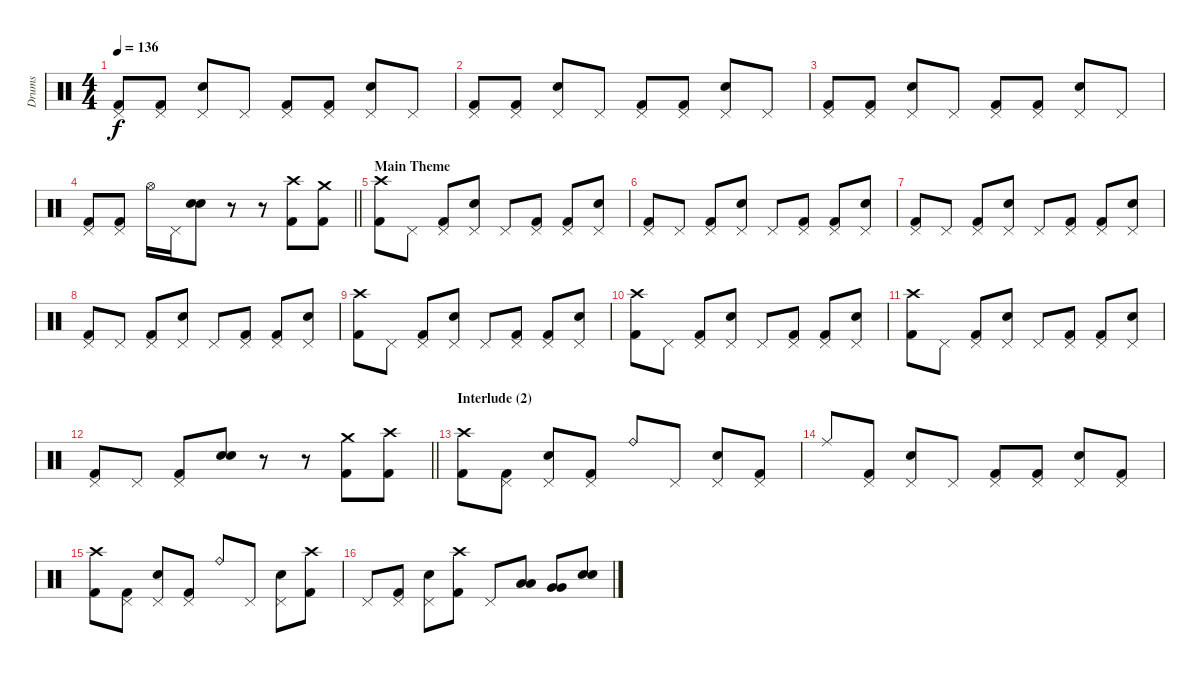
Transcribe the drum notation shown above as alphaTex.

\track ("Drums" "Drums") {instrument percussion}
\staff {score}
\articulation defaults
\ts (4 4)
\tempo 136
\clef neutral
\ks c
("Pedal Hi-Hat (hit)" "Kick (hit) 2").8{dy f} ("Pedal Hi-Hat (hit)" "Kick (hit) 2").8 ("Pedal Hi-Hat (hit)" "Electric Snare (hit)").8 "Pedal Hi-Hat (hit)".8 ("Pedal Hi-Hat (hit)" "Kick (hit) 2").8 ("Pedal Hi-Hat (hit)" "Kick (hit) 2").8 ("Pedal Hi-Hat (hit)" "Electric Snare (hit)").8 "Pedal Hi-Hat (hit)".8 |
("Pedal Hi-Hat (hit)" "Kick (hit) 2").8 ("Pedal Hi-Hat (hit)" "Kick (hit) 2").8 ("Pedal Hi-Hat (hit)" "Electric Snare (hit)").8 "Pedal Hi-Hat (hit)".8 ("Pedal Hi-Hat (hit)" "Kick (hit) 2").8 ("Pedal Hi-Hat (hit)" "Kick (hit) 2").8 ("Pedal Hi-Hat (hit)" "Electric Snare (hit)").8 "Pedal Hi-Hat (hit)".8 |
("Pedal Hi-Hat (hit)" "Kick (hit) 2").8 ("Pedal Hi-Hat (hit)" "Kick (hit) 2").8 ("Pedal Hi-Hat (hit)" "Electric Snare (hit)").8 "Pedal Hi-Hat (hit)".8 ("Pedal Hi-Hat (hit)" "Kick (hit) 2").8 ("Pedal Hi-Hat (hit)" "Kick (hit) 2").8 ("Pedal Hi-Hat (hit)" "Electric Snare (hit)").8 "Pedal Hi-Hat (hit)".8 |
\barLineRight lightlight
("Pedal Hi-Hat (hit)" "Kick (hit) 2").8 ("Pedal Hi-Hat (hit)" "Kick (hit) 2").8 "Hi-Hat (open)".16 "Pedal Hi-Hat (hit)".16 ("Electric Snare (hit)" "Electric Snare (hit)").8 r.8 r.8 ("Crash high (hit)" "Kick (hit) 2").8 ("Crash medium (hit)" "Kick (hit) 2").8 |
\section ("" "Main Theme")
("Crash high (hit)" "Kick (hit) 2").8 "Pedal Hi-Hat (hit)".8 ("Pedal Hi-Hat (hit)" "Kick (hit) 2").8 ("Pedal Hi-Hat (hit)" "Electric Snare (hit)").8 "Pedal Hi-Hat (hit)".8 ("Pedal Hi-Hat (hit)" "Kick (hit) 2").8 ("Pedal Hi-Hat (hit)" "Kick (hit) 2").8 ("Pedal Hi-Hat (hit)" "Electric Snare (hit)").8 |
("Pedal Hi-Hat (hit)" "Kick (hit) 2").8 "Pedal Hi-Hat (hit)".8 ("Pedal Hi-Hat (hit)" "Kick (hit) 2").8 ("Pedal Hi-Hat (hit)" "Electric Snare (hit)").8 "Pedal Hi-Hat (hit)".8 ("Pedal Hi-Hat (hit)" "Kick (hit) 2").8 ("Pedal Hi-Hat (hit)" "Kick (hit) 2").8 ("Pedal Hi-Hat (hit)" "Electric Snare (hit)").8 |
("Pedal Hi-Hat (hit)" "Kick (hit) 2").8 "Pedal Hi-Hat (hit)".8 ("Pedal Hi-Hat (hit)" "Kick (hit) 2").8 ("Pedal Hi-Hat (hit)" "Electric Snare (hit)").8 "Pedal Hi-Hat (hit)".8 ("Pedal Hi-Hat (hit)" "Kick (hit) 2").8 ("Pedal Hi-Hat (hit)" "Kick (hit) 2").8 ("Pedal Hi-Hat (hit)" "Electric Snare (hit)").8 |
("Pedal Hi-Hat (hit)" "Kick (hit) 2").8 "Pedal Hi-Hat (hit)".8 ("Pedal Hi-Hat (hit)" "Kick (hit) 2").8 ("Pedal Hi-Hat (hit)" "Electric Snare (hit)").8 "Pedal Hi-Hat (hit)".8 ("Pedal Hi-Hat (hit)" "Kick (hit) 2").8 ("Pedal Hi-Hat (hit)" "Kick (hit) 2").8 ("Pedal Hi-Hat (hit)" "Electric Snare (hit)").8 |
("Crash high (hit)" "Kick (hit) 2").8 "Pedal Hi-Hat (hit)".8 ("Pedal Hi-Hat (hit)" "Kick (hit) 2").8 ("Pedal Hi-Hat (hit)" "Electric Snare (hit)").8 "Pedal Hi-Hat (hit)".8 ("Pedal Hi-Hat (hit)" "Kick (hit) 2").8 ("Pedal Hi-Hat (hit)" "Kick (hit) 2").8 ("Pedal Hi-Hat (hit)" "Electric Snare (hit)").8 |
("Crash high (hit)" "Kick (hit) 2").8 "Pedal Hi-Hat (hit)".8 ("Pedal Hi-Hat (hit)" "Kick (hit) 2").8 ("Pedal Hi-Hat (hit)" "Electric Snare (hit)").8 "Pedal Hi-Hat (hit)".8 ("Pedal Hi-Hat (hit)" "Kick (hit) 2").8 ("Pedal Hi-Hat (hit)" "Kick (hit) 2").8 ("Pedal Hi-Hat (hit)" "Electric Snare (hit)").8 |
("Crash high (hit)" "Kick (hit) 2").8 "Pedal Hi-Hat (hit)".8 ("Pedal Hi-Hat (hit)" "Kick (hit) 2").8 ("Pedal Hi-Hat (hit)" "Electric Snare (hit)").8 "Pedal Hi-Hat (hit)".8 ("Pedal Hi-Hat (hit)" "Kick (hit) 2").8 ("Pedal Hi-Hat (hit)" "Kick (hit) 2").8 ("Pedal Hi-Hat (hit)" "Electric Snare (hit)").8 |
\barLineRight lightlight
("Pedal Hi-Hat (hit)" "Kick (hit) 2").8 "Pedal Hi-Hat (hit)".8 ("Pedal Hi-Hat (hit)" "Kick (hit) 2").8 ("Electric Snare (hit)" "Electric Snare (hit)").8 r.8 r.8 ("Crash medium (hit)" "Kick (hit) 2").8 ("Crash high (hit)" "Kick (hit) 2").8 |
\section ("" "Interlude (2)")
("Crash high (hit)" "Kick (hit) 2").8 ("Pedal Hi-Hat (hit)" "Kick (hit) 2").8 ("Pedal Hi-Hat (hit)" "Electric Snare (hit)").8 ("Pedal Hi-Hat (hit)" "Kick (hit) 2").8 "Ride (bell)".8 "Pedal Hi-Hat (hit)".8 ("Pedal Hi-Hat (hit)" "Electric Snare (hit)").8 ("Pedal Hi-Hat (hit)" "Kick (hit) 2").8 |
"Ride (middle)".8 ("Pedal Hi-Hat (hit)" "Kick (hit) 2").8 ("Pedal Hi-Hat (hit)" "Electric Snare (hit)").8 "Pedal Hi-Hat (hit)".8 ("Pedal Hi-Hat (hit)" "Kick (hit) 2").8 ("Pedal Hi-Hat (hit)" "Kick (hit) 2").8 ("Pedal Hi-Hat (hit)" "Electric Snare (hit)").8 ("Pedal Hi-Hat (hit)" "Kick (hit) 2").8 |
("Crash high (hit)" "Kick (hit) 2").8 ("Pedal Hi-Hat (hit)" "Kick (hit) 2").8 ("Pedal Hi-Hat (hit)" "Electric Snare (hit)").8 ("Pedal Hi-Hat (hit)" "Kick (hit) 2").8 "Ride (bell)".8 "Pedal Hi-Hat (hit)".8 ("Pedal Hi-Hat (hit)" "Electric Snare (hit)").8 ("Crash high (hit)" "Kick (hit) 2").8 |
"Pedal Hi-Hat (hit)".8 ("Pedal Hi-Hat (hit)" "Kick (hit) 2").8 ("Pedal Hi-Hat (hit)" "Electric Snare (hit)").8 ("Crash high (hit)" "Kick (hit) 2").8 "Pedal Hi-Hat (hit)".8 ("Low Tom (hit)" "Low Tom (hit)").8 ("Very Low Tom (hit)" "Very Low Tom (hit)").8 ("Electric Snare (hit)" "Electric Snare (hit)").8
